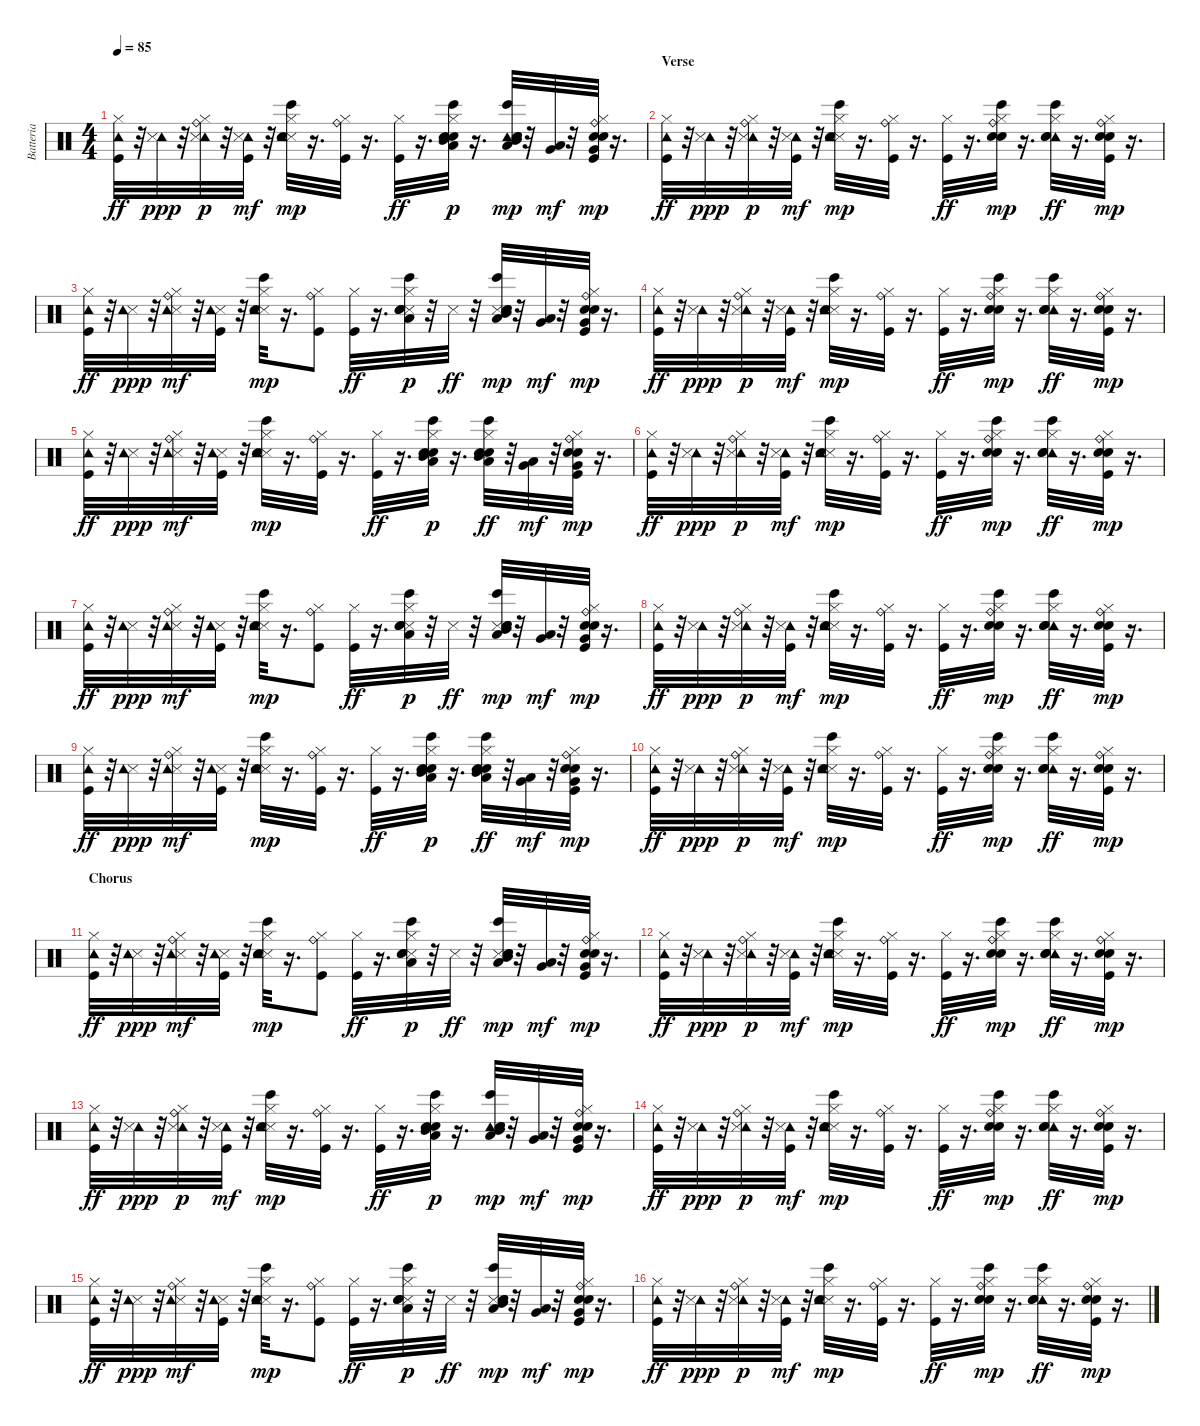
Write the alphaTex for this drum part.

\track ("Batteria" "Batteria") {instrument percussion}
\staff {score}
\articulation defaults
\ts (4 4)
\tempo 85
\clef neutral
\ks c
("Kick (hit)" "Hi-Hat (closed)" "Tambourine (hit)").32{dy ff} r.32 ("Tambourine (hit)" "Metronome (hit)").32{dy ppp} r.32 ("Tambourine (hit)" "Metronome (hit)" "Hi-Hat (closed)" "Ride (bell)").32{dy p} r.32 ("Tambourine (hit)" "Metronome (hit)" "Kick (hit)").32{dy mf} r.32 ("Bongo High (hit)" "Metronome (hit)" "Snare (hit) 2" "Hi-Hat (closed)" "Tambourine (hit)").32{dy mp} r.16{d} ("Kick (hit)" "Hi-Hat (closed)" "Ride (bell)").32 r.16{d} ("Kick (hit)" "Hi-Hat (closed)").32{dy ff} r.16{d} ("Low Tom (hit)" "Bongo High (hit)" "Snare (hit) 2" "Hand Clap (hit)" "Hi-Hat (closed)" "Mid Tom (hit)").32{dy p} r.16{d} ("Tambourine (hit)" "Low Tom (hit)" "Mid Tom (hit)" "Bongo High (hit)" "Snare (hit) 2" "Hand Clap (hit)").32{dy mp} r.32 ("Low Tom (hit)" "Very Low Tom (hit)").32{dy mf} r.32 ("Very Low Tom (hit)" "Kick (hit)" "Snare (hit) 2" "Hand Clap (hit)" "Hi-Hat (closed)" "Ride (bell)").32{dy mp} r.16{d} |
\section ("" "Verse")
("Kick (hit)" "Hi-Hat (closed)" "Tambourine (hit)").32{dy ff} r.32 ("Tambourine (hit)" "Metronome (hit)").32{dy ppp} r.32 ("Tambourine (hit)" "Metronome (hit)" "Hi-Hat (closed)" "Ride (bell)").32{dy p} r.32 ("Tambourine (hit)" "Metronome (hit)" "Kick (hit)").32{dy mf} r.32 ("Bongo High (hit)" "Metronome (hit)" "Snare (hit) 2" "Hi-Hat (closed)" "Tambourine (hit)").32{dy mp} r.16{d} ("Kick (hit)" "Hi-Hat (closed)" "Ride (bell)").32 r.16{d} ("Kick (hit)" "Hi-Hat (closed)").32{dy ff} r.16{d} ("Bongo High (hit)" "Snare (hit) 2" "Hand Clap (hit)" "Hi-Hat (closed)" "Ride (bell)").32{dy mp} r.16{d} ("Tambourine (hit)" "Bongo High (hit)" "Snare (hit) 2" "Hand Clap (hit)" "Hi-Hat (closed)").32{dy ff} r.16{d} ("Kick (hit)" "Snare (hit) 2" "Hand Clap (hit)" "Hi-Hat (closed)" "Ride (bell)").32{dy mp} r.16{d} |
("Kick (hit)" "Hi-Hat (closed)" "Tambourine (hit)").32{dy ff} r.32 ("Metronome (hit)" "Tambourine (hit)").32{dy ppp} r.32 ("Metronome (hit)" "Hi-Hat (closed)" "Ride (bell)" "Tambourine (hit)").32{dy mf} r.32 ("Metronome (hit)" "Kick (hit)" "Tambourine (hit)").32 r.32 ("Bongo High (hit)" "Metronome (hit)" "Snare (hit) 2" "Hi-Hat (closed)" "Tambourine (hit)").32{dy mp} r.16{d} ("Kick (hit)" "Hi-Hat (closed)" "Ride (bell)").8 ("Kick (hit)" "Hi-Hat (closed)").32{dy ff} r.16{d} ("Low Tom (hit)" "Bongo High (hit)" "Metronome (hit)" "Snare (hit) 2" "Hand Clap (hit)" "Hi-Hat (closed)").32{dy p} r.32 "Metronome (hit)".32{dy ff} r.32 ("Low Tom (hit)" "Mid Tom (hit)" "Bongo High (hit)" "Metronome (hit)" "Snare (hit) 2" "Hand Clap (hit)").32{dy mp} r.32 ("Low Tom (hit)" "Very Low Tom (hit)").32{dy mf} r.32 ("Very Low Tom (hit)" "Kick (hit)" "Snare (hit) 2" "Hand Clap (hit)" "Hi-Hat (closed)" "Ride (bell)").32{dy mp} r.16{d} |
("Kick (hit)" "Hi-Hat (closed)" "Tambourine (hit)").32{dy ff} r.32 ("Tambourine (hit)" "Metronome (hit)").32{dy ppp} r.32 ("Tambourine (hit)" "Metronome (hit)" "Hi-Hat (closed)" "Ride (bell)").32{dy p} r.32 ("Tambourine (hit)" "Metronome (hit)" "Kick (hit)").32{dy mf} r.32 ("Bongo High (hit)" "Metronome (hit)" "Snare (hit) 2" "Hi-Hat (closed)" "Tambourine (hit)").32{dy mp} r.16{d} ("Kick (hit)" "Hi-Hat (closed)" "Ride (bell)").32 r.16{d} ("Kick (hit)" "Hi-Hat (closed)").32{dy ff} r.16{d} ("Bongo High (hit)" "Snare (hit) 2" "Hand Clap (hit)" "Hi-Hat (closed)" "Ride (bell)").32{dy mp} r.16{d} ("Tambourine (hit)" "Bongo High (hit)" "Snare (hit) 2" "Hand Clap (hit)" "Hi-Hat (closed)").32{dy ff} r.16{d} ("Kick (hit)" "Snare (hit) 2" "Hand Clap (hit)" "Hi-Hat (closed)" "Ride (bell)").32{dy mp} r.16{d} |
("Kick (hit)" "Hi-Hat (closed)" "Tambourine (hit)").32{dy ff} r.32 ("Metronome (hit)" "Tambourine (hit)").32{dy ppp} r.32 ("Metronome (hit)" "Hi-Hat (closed)" "Ride (bell)" "Tambourine (hit)").32{dy mf} r.32 ("Metronome (hit)" "Kick (hit)" "Tambourine (hit)").32 r.32 ("Bongo High (hit)" "Metronome (hit)" "Snare (hit) 2" "Hi-Hat (closed)" "Tambourine (hit)").32{dy mp} r.16{d} ("Kick (hit)" "Hi-Hat (closed)" "Ride (bell)").32 r.16{d} ("Kick (hit)" "Hi-Hat (closed)").32{dy ff} r.16{d} ("Low Tom (hit)" "Bongo High (hit)" "Snare (hit) 2" "Hand Clap (hit)" "Hi-Hat (closed)" "Mid Tom (hit)").32{dy p} r.16{d} ("Low Tom (hit)" "Mid Tom (hit)" "Bongo High (hit)" "Snare (hit) 2" "Hand Clap (hit)" "Hi-Hat (closed)").32{dy ff} r.32 ("Low Tom (hit)" "Very Low Tom (hit)").32{dy mf} r.32 ("Very Low Tom (hit)" "Kick (hit)" "Snare (hit) 2" "Hand Clap (hit)" "Hi-Hat (closed)" "Ride (bell)").32{dy mp} r.16{d} |
("Kick (hit)" "Hi-Hat (closed)" "Tambourine (hit)").32{dy ff} r.32 ("Tambourine (hit)" "Metronome (hit)").32{dy ppp} r.32 ("Tambourine (hit)" "Metronome (hit)" "Hi-Hat (closed)" "Ride (bell)").32{dy p} r.32 ("Tambourine (hit)" "Metronome (hit)" "Kick (hit)").32{dy mf} r.32 ("Bongo High (hit)" "Metronome (hit)" "Snare (hit) 2" "Hi-Hat (closed)" "Tambourine (hit)").32{dy mp} r.16{d} ("Kick (hit)" "Hi-Hat (closed)" "Ride (bell)").32 r.16{d} ("Kick (hit)" "Hi-Hat (closed)").32{dy ff} r.16{d} ("Bongo High (hit)" "Snare (hit) 2" "Hand Clap (hit)" "Hi-Hat (closed)" "Ride (bell)").32{dy mp} r.16{d} ("Tambourine (hit)" "Bongo High (hit)" "Snare (hit) 2" "Hand Clap (hit)" "Hi-Hat (closed)").32{dy ff} r.16{d} ("Kick (hit)" "Snare (hit) 2" "Hand Clap (hit)" "Hi-Hat (closed)" "Ride (bell)").32{dy mp} r.16{d} |
("Kick (hit)" "Hi-Hat (closed)" "Tambourine (hit)").32{dy ff} r.32 ("Metronome (hit)" "Tambourine (hit)").32{dy ppp} r.32 ("Metronome (hit)" "Hi-Hat (closed)" "Ride (bell)" "Tambourine (hit)").32{dy mf} r.32 ("Metronome (hit)" "Kick (hit)" "Tambourine (hit)").32 r.32 ("Bongo High (hit)" "Metronome (hit)" "Snare (hit) 2" "Hi-Hat (closed)" "Tambourine (hit)").32{dy mp} r.16{d} ("Kick (hit)" "Hi-Hat (closed)" "Ride (bell)").8 ("Kick (hit)" "Hi-Hat (closed)").32{dy ff} r.16{d} ("Low Tom (hit)" "Bongo High (hit)" "Metronome (hit)" "Snare (hit) 2" "Hand Clap (hit)" "Hi-Hat (closed)").32{dy p} r.32 "Metronome (hit)".32{dy ff} r.32 ("Low Tom (hit)" "Mid Tom (hit)" "Bongo High (hit)" "Metronome (hit)" "Snare (hit) 2" "Hand Clap (hit)").32{dy mp} r.32 ("Low Tom (hit)" "Very Low Tom (hit)").32{dy mf} r.32 ("Very Low Tom (hit)" "Kick (hit)" "Snare (hit) 2" "Hand Clap (hit)" "Hi-Hat (closed)" "Ride (bell)").32{dy mp} r.16{d} |
("Kick (hit)" "Hi-Hat (closed)" "Tambourine (hit)").32{dy ff} r.32 ("Tambourine (hit)" "Metronome (hit)").32{dy ppp} r.32 ("Tambourine (hit)" "Metronome (hit)" "Hi-Hat (closed)" "Ride (bell)").32{dy p} r.32 ("Tambourine (hit)" "Metronome (hit)" "Kick (hit)").32{dy mf} r.32 ("Bongo High (hit)" "Metronome (hit)" "Snare (hit) 2" "Hi-Hat (closed)" "Tambourine (hit)").32{dy mp} r.16{d} ("Kick (hit)" "Hi-Hat (closed)" "Ride (bell)").32 r.16{d} ("Kick (hit)" "Hi-Hat (closed)").32{dy ff} r.16{d} ("Bongo High (hit)" "Snare (hit) 2" "Hand Clap (hit)" "Hi-Hat (closed)" "Ride (bell)").32{dy mp} r.16{d} ("Tambourine (hit)" "Bongo High (hit)" "Snare (hit) 2" "Hand Clap (hit)" "Hi-Hat (closed)").32{dy ff} r.16{d} ("Kick (hit)" "Snare (hit) 2" "Hand Clap (hit)" "Hi-Hat (closed)" "Ride (bell)").32{dy mp} r.16{d} |
("Kick (hit)" "Hi-Hat (closed)" "Tambourine (hit)").32{dy ff} r.32 ("Metronome (hit)" "Tambourine (hit)").32{dy ppp} r.32 ("Metronome (hit)" "Hi-Hat (closed)" "Ride (bell)" "Tambourine (hit)").32{dy mf} r.32 ("Metronome (hit)" "Kick (hit)" "Tambourine (hit)").32 r.32 ("Bongo High (hit)" "Metronome (hit)" "Snare (hit) 2" "Hi-Hat (closed)" "Tambourine (hit)").32{dy mp} r.16{d} ("Kick (hit)" "Hi-Hat (closed)" "Ride (bell)").32 r.16{d} ("Kick (hit)" "Hi-Hat (closed)").32{dy ff} r.16{d} ("Low Tom (hit)" "Bongo High (hit)" "Snare (hit) 2" "Hand Clap (hit)" "Hi-Hat (closed)" "Mid Tom (hit)").32{dy p} r.16{d} ("Low Tom (hit)" "Mid Tom (hit)" "Bongo High (hit)" "Snare (hit) 2" "Hand Clap (hit)" "Hi-Hat (closed)").32{dy ff} r.32 ("Low Tom (hit)" "Very Low Tom (hit)").32{dy mf} r.32 ("Very Low Tom (hit)" "Kick (hit)" "Snare (hit) 2" "Hand Clap (hit)" "Hi-Hat (closed)" "Ride (bell)").32{dy mp} r.16{d} |
("Kick (hit)" "Hi-Hat (closed)" "Tambourine (hit)").32{dy ff} r.32 ("Tambourine (hit)" "Metronome (hit)").32{dy ppp} r.32 ("Tambourine (hit)" "Metronome (hit)" "Hi-Hat (closed)" "Ride (bell)").32{dy p} r.32 ("Tambourine (hit)" "Metronome (hit)" "Kick (hit)").32{dy mf} r.32 ("Bongo High (hit)" "Metronome (hit)" "Snare (hit) 2" "Hi-Hat (closed)" "Tambourine (hit)").32{dy mp} r.16{d} ("Kick (hit)" "Hi-Hat (closed)" "Ride (bell)").32 r.16{d} ("Kick (hit)" "Hi-Hat (closed)").32{dy ff} r.16{d} ("Bongo High (hit)" "Snare (hit) 2" "Hand Clap (hit)" "Hi-Hat (closed)" "Ride (bell)").32{dy mp} r.16{d} ("Tambourine (hit)" "Bongo High (hit)" "Snare (hit) 2" "Hand Clap (hit)" "Hi-Hat (closed)").32{dy ff} r.16{d} ("Kick (hit)" "Snare (hit) 2" "Hand Clap (hit)" "Hi-Hat (closed)" "Ride (bell)").32{dy mp} r.16{d} |
\section ("" "Chorus")
("Kick (hit)" "Hi-Hat (closed)" "Tambourine (hit)").32{dy ff} r.32 ("Metronome (hit)" "Tambourine (hit)").32{dy ppp} r.32 ("Metronome (hit)" "Hi-Hat (closed)" "Ride (bell)" "Tambourine (hit)").32{dy mf} r.32 ("Metronome (hit)" "Kick (hit)" "Tambourine (hit)").32 r.32 ("Bongo High (hit)" "Metronome (hit)" "Snare (hit) 2" "Hi-Hat (closed)" "Tambourine (hit)").32{dy mp} r.16{d} ("Kick (hit)" "Hi-Hat (closed)" "Ride (bell)").8 ("Kick (hit)" "Hi-Hat (closed)").32{dy ff} r.16{d} ("Low Tom (hit)" "Bongo High (hit)" "Metronome (hit)" "Snare (hit) 2" "Hand Clap (hit)" "Hi-Hat (closed)").32{dy p} r.32 "Metronome (hit)".32{dy ff} r.32 ("Low Tom (hit)" "Mid Tom (hit)" "Bongo High (hit)" "Metronome (hit)" "Snare (hit) 2" "Hand Clap (hit)").32{dy mp} r.32 ("Low Tom (hit)" "Very Low Tom (hit)").32{dy mf} r.32 ("Very Low Tom (hit)" "Kick (hit)" "Snare (hit) 2" "Hand Clap (hit)" "Hi-Hat (closed)" "Ride (bell)").32{dy mp} r.16{d} |
("Kick (hit)" "Hi-Hat (closed)" "Tambourine (hit)").32{dy ff} r.32 ("Tambourine (hit)" "Metronome (hit)").32{dy ppp} r.32 ("Tambourine (hit)" "Metronome (hit)" "Hi-Hat (closed)" "Ride (bell)").32{dy p} r.32 ("Tambourine (hit)" "Metronome (hit)" "Kick (hit)").32{dy mf} r.32 ("Bongo High (hit)" "Metronome (hit)" "Snare (hit) 2" "Hi-Hat (closed)" "Tambourine (hit)").32{dy mp} r.16{d} ("Kick (hit)" "Hi-Hat (closed)" "Ride (bell)").32 r.16{d} ("Kick (hit)" "Hi-Hat (closed)").32{dy ff} r.16{d} ("Bongo High (hit)" "Snare (hit) 2" "Hand Clap (hit)" "Hi-Hat (closed)" "Ride (bell)").32{dy mp} r.16{d} ("Tambourine (hit)" "Bongo High (hit)" "Snare (hit) 2" "Hand Clap (hit)" "Hi-Hat (closed)").32{dy ff} r.16{d} ("Kick (hit)" "Snare (hit) 2" "Hand Clap (hit)" "Hi-Hat (closed)" "Ride (bell)").32{dy mp} r.16{d} |
("Kick (hit)" "Hi-Hat (closed)" "Tambourine (hit)").32{dy ff} r.32 ("Tambourine (hit)" "Metronome (hit)").32{dy ppp} r.32 ("Tambourine (hit)" "Metronome (hit)" "Hi-Hat (closed)" "Ride (bell)").32{dy p} r.32 ("Tambourine (hit)" "Metronome (hit)" "Kick (hit)").32{dy mf} r.32 ("Bongo High (hit)" "Metronome (hit)" "Snare (hit) 2" "Hi-Hat (closed)" "Tambourine (hit)").32{dy mp} r.16{d} ("Kick (hit)" "Hi-Hat (closed)" "Ride (bell)").32 r.16{d} ("Kick (hit)" "Hi-Hat (closed)").32{dy ff} r.16{d} ("Low Tom (hit)" "Bongo High (hit)" "Snare (hit) 2" "Hand Clap (hit)" "Hi-Hat (closed)" "Mid Tom (hit)").32{dy p} r.16{d} ("Tambourine (hit)" "Low Tom (hit)" "Mid Tom (hit)" "Bongo High (hit)" "Snare (hit) 2" "Hand Clap (hit)").32{dy mp} r.32 ("Low Tom (hit)" "Very Low Tom (hit)").32{dy mf} r.32 ("Very Low Tom (hit)" "Kick (hit)" "Snare (hit) 2" "Hand Clap (hit)" "Hi-Hat (closed)" "Ride (bell)").32{dy mp} r.16{d} |
("Kick (hit)" "Hi-Hat (closed)" "Tambourine (hit)").32{dy ff} r.32 ("Tambourine (hit)" "Metronome (hit)").32{dy ppp} r.32 ("Tambourine (hit)" "Metronome (hit)" "Hi-Hat (closed)" "Ride (bell)").32{dy p} r.32 ("Tambourine (hit)" "Metronome (hit)" "Kick (hit)").32{dy mf} r.32 ("Bongo High (hit)" "Metronome (hit)" "Snare (hit) 2" "Hi-Hat (closed)" "Tambourine (hit)").32{dy mp} r.16{d} ("Kick (hit)" "Hi-Hat (closed)" "Ride (bell)").32 r.16{d} ("Kick (hit)" "Hi-Hat (closed)").32{dy ff} r.16{d} ("Bongo High (hit)" "Snare (hit) 2" "Hand Clap (hit)" "Hi-Hat (closed)" "Ride (bell)").32{dy mp} r.16{d} ("Tambourine (hit)" "Bongo High (hit)" "Snare (hit) 2" "Hand Clap (hit)" "Hi-Hat (closed)").32{dy ff} r.16{d} ("Kick (hit)" "Snare (hit) 2" "Hand Clap (hit)" "Hi-Hat (closed)" "Ride (bell)").32{dy mp} r.16{d} |
("Kick (hit)" "Hi-Hat (closed)" "Tambourine (hit)").32{dy ff} r.32 ("Metronome (hit)" "Tambourine (hit)").32{dy ppp} r.32 ("Metronome (hit)" "Hi-Hat (closed)" "Ride (bell)" "Tambourine (hit)").32{dy mf} r.32 ("Metronome (hit)" "Kick (hit)" "Tambourine (hit)").32 r.32 ("Bongo High (hit)" "Metronome (hit)" "Snare (hit) 2" "Hi-Hat (closed)" "Tambourine (hit)").32{dy mp} r.16{d} ("Kick (hit)" "Hi-Hat (closed)" "Ride (bell)").8 ("Kick (hit)" "Hi-Hat (closed)").32{dy ff} r.16{d} ("Low Tom (hit)" "Bongo High (hit)" "Metronome (hit)" "Snare (hit) 2" "Hand Clap (hit)" "Hi-Hat (closed)").32{dy p} r.32 "Metronome (hit)".32{dy ff} r.32 ("Low Tom (hit)" "Mid Tom (hit)" "Bongo High (hit)" "Metronome (hit)" "Snare (hit) 2" "Hand Clap (hit)").32{dy mp} r.32 ("Low Tom (hit)" "Very Low Tom (hit)").32{dy mf} r.32 ("Very Low Tom (hit)" "Kick (hit)" "Snare (hit) 2" "Hand Clap (hit)" "Hi-Hat (closed)" "Ride (bell)").32{dy mp} r.16{d} |
("Kick (hit)" "Hi-Hat (closed)" "Tambourine (hit)").32{dy ff} r.32 ("Tambourine (hit)" "Metronome (hit)").32{dy ppp} r.32 ("Tambourine (hit)" "Metronome (hit)" "Hi-Hat (closed)" "Ride (bell)").32{dy p} r.32 ("Tambourine (hit)" "Metronome (hit)" "Kick (hit)").32{dy mf} r.32 ("Bongo High (hit)" "Metronome (hit)" "Snare (hit) 2" "Hi-Hat (closed)" "Tambourine (hit)").32{dy mp} r.16{d} ("Kick (hit)" "Hi-Hat (closed)" "Ride (bell)").32 r.16{d} ("Kick (hit)" "Hi-Hat (closed)").32{dy ff} r.16{d} ("Bongo High (hit)" "Snare (hit) 2" "Hand Clap (hit)" "Hi-Hat (closed)" "Ride (bell)").32{dy mp} r.16{d} ("Tambourine (hit)" "Bongo High (hit)" "Snare (hit) 2" "Hand Clap (hit)" "Hi-Hat (closed)").32{dy ff} r.16{d} ("Kick (hit)" "Snare (hit) 2" "Hand Clap (hit)" "Hi-Hat (closed)" "Ride (bell)").32{dy mp} r.16{d}
